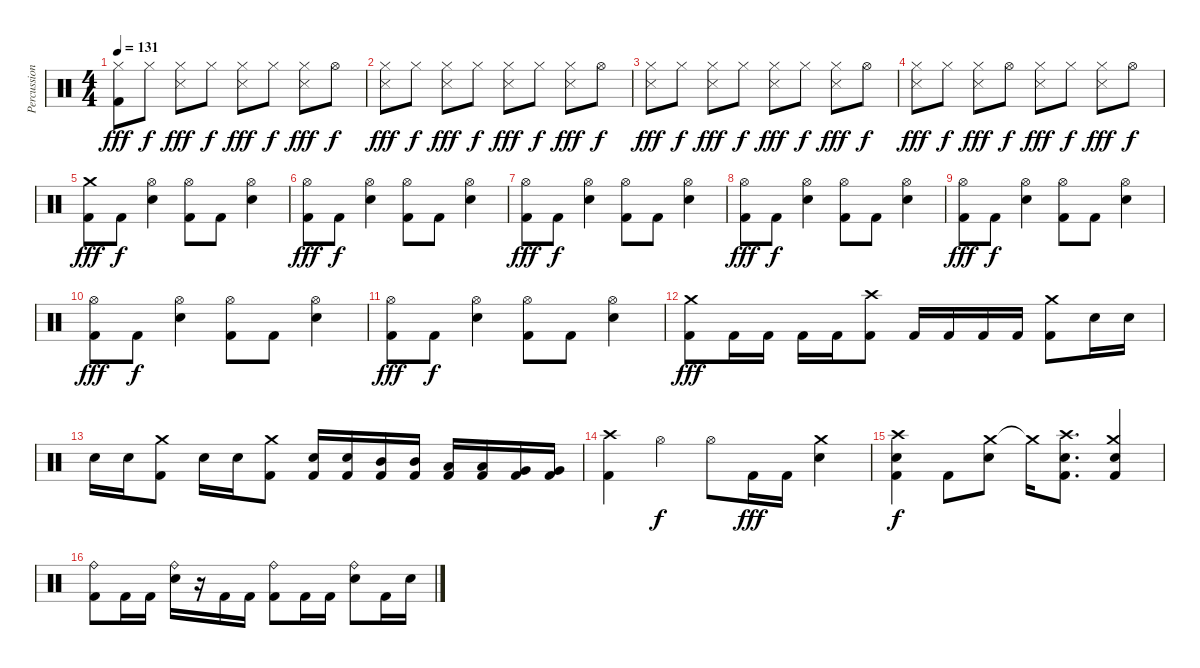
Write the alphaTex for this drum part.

\track ("Percussion" "Percussion") {instrument percussion}
\staff {score}
\articulation defaults
\ts (4 4)
\tempo 131
\clef neutral
\ks c
("Hi-Hat (closed)" "Kick (hit) 2").8{dy fff} "Hi-Hat (closed)".8{dy f} ("Hi-Hat (closed)" "Snare (side stick) 3").8{dy fff} "Hi-Hat (closed)".8{dy f} ("Hi-Hat (closed)" "Snare (side stick) 3").8{dy fff} "Hi-Hat (closed)".8{dy f} ("Hi-Hat (closed)" "Snare (side stick) 3").8{dy fff} "Hi-Hat (open)".8{dy f} |
("Hi-Hat (closed)" "Snare (side stick) 3").8{dy fff} "Hi-Hat (closed)".8{dy f} ("Hi-Hat (closed)" "Snare (side stick) 3").8{dy fff} "Hi-Hat (closed)".8{dy f} ("Hi-Hat (closed)" "Snare (side stick) 3").8{dy fff} "Hi-Hat (closed)".8{dy f} ("Hi-Hat (closed)" "Snare (side stick) 3").8{dy fff} "Hi-Hat (open)".8{dy f} |
("Hi-Hat (closed)" "Snare (side stick) 3").8{dy fff} "Hi-Hat (closed)".8{dy f} ("Hi-Hat (closed)" "Snare (side stick) 3").8{dy fff} "Hi-Hat (closed)".8{dy f} ("Hi-Hat (closed)" "Snare (side stick) 3").8{dy fff} "Hi-Hat (closed)".8{dy f} ("Hi-Hat (closed)" "Snare (side stick) 3").8{dy fff} "Hi-Hat (open)".8{dy f} |
("Hi-Hat (closed)" "Snare (side stick) 3").8{dy fff} "Hi-Hat (closed)".8{dy f} ("Hi-Hat (closed)" "Snare (side stick) 3").8{dy fff} "Hi-Hat (open)".8{dy f} ("Hi-Hat (closed)" "Snare (side stick) 3").8{dy fff} "Hi-Hat (closed)".8{dy f} ("Hi-Hat (closed)" "Snare (side stick) 3").8{dy fff} "Hi-Hat (open)".8{dy f} |
("Crash medium (hit)" "Kick (hit) 2").8{dy fff} "Kick (hit) 2".8{dy f} ("Hi-Hat (open)" "Electric Snare (hit)").4 ("Hi-Hat (open)" "Kick (hit) 2").8 "Kick (hit) 2".8 ("Hi-Hat (open)" "Electric Snare (hit)").4 |
("Hi-Hat (open)" "Kick (hit) 2").8{dy fff} "Kick (hit) 2".8{dy f} ("Hi-Hat (open)" "Electric Snare (hit)").4 ("Hi-Hat (open)" "Kick (hit) 2").8 "Kick (hit) 2".8 ("Hi-Hat (open)" "Electric Snare (hit)").4 |
("Hi-Hat (open)" "Kick (hit) 2").8{dy fff} "Kick (hit) 2".8{dy f} ("Hi-Hat (open)" "Electric Snare (hit)").4 ("Hi-Hat (open)" "Kick (hit) 2").8 "Kick (hit) 2".8 ("Hi-Hat (open)" "Electric Snare (hit)").4 |
("Hi-Hat (open)" "Kick (hit) 2").8{dy fff} "Kick (hit) 2".8{dy f} ("Hi-Hat (open)" "Electric Snare (hit)").4 ("Hi-Hat (open)" "Kick (hit) 2").8 "Kick (hit) 2".8 ("Hi-Hat (open)" "Electric Snare (hit)").4 |
("Hi-Hat (open)" "Kick (hit) 2").8{dy fff} "Kick (hit) 2".8{dy f} ("Hi-Hat (open)" "Electric Snare (hit)").4 ("Hi-Hat (open)" "Kick (hit) 2").8 "Kick (hit) 2".8 ("Hi-Hat (open)" "Electric Snare (hit)").4 |
("Hi-Hat (open)" "Kick (hit) 2").8{dy fff} "Kick (hit) 2".8{dy f} ("Hi-Hat (open)" "Electric Snare (hit)").4 ("Hi-Hat (open)" "Kick (hit) 2").8 "Kick (hit) 2".8 ("Hi-Hat (open)" "Electric Snare (hit)").4 |
("Hi-Hat (open)" "Kick (hit) 2").8{dy fff} "Kick (hit) 2".8{dy f} ("Hi-Hat (open)" "Electric Snare (hit)").4 ("Hi-Hat (open)" "Kick (hit) 2").8 "Kick (hit) 2".8 ("Hi-Hat (open)" "Electric Snare (hit)").4 |
("Crash medium (hit)" "Kick (hit) 2").8{dy fff} "Kick (hit) 2".16 "Kick (hit) 2".16 "Kick (hit) 2".16 "Kick (hit) 2".16 ("Crash high (hit)" "Kick (hit) 2").8 "Kick (hit) 2".16 "Kick (hit) 2".16 "Kick (hit) 2".16 "Kick (hit) 2".16 ("Crash medium (hit)" "Kick (hit) 2").8 "Electric Snare (hit)".16 "Electric Snare (hit)".16 |
"Electric Snare (hit)".16 "Electric Snare (hit)".16 ("Crash medium (hit)" "Kick (hit) 2").8 "Electric Snare (hit)".16 "Electric Snare (hit)".16 ("Crash medium (hit)" "Kick (hit) 2").8 ("Electric Snare (hit)" "Kick (hit) 2").16 ("Electric Snare (hit)" "Kick (hit) 2").16 ("Mid Tom (hit)" "Kick (hit) 2").16 ("Mid Tom (hit)" "Kick (hit) 2").16 ("Low Tom (hit)" "Kick (hit) 2").16 ("Low Tom (hit)" "Kick (hit) 2").16 ("Very Low Tom (hit)" "Kick (hit) 2").16 ("Very Low Tom (hit)" "Kick (hit) 2").16 |
("Crash high (hit)" "Kick (hit) 2").4 "Hi-Hat (open)".4{dy f} "Hi-Hat (open)".8 "Kick (hit) 2".16{dy fff} "Kick (hit) 2".16 ("Crash medium (hit)" "Electric Snare (hit)").4 |
("Crash high (hit)" "Electric Snare (hit)" "Kick (hit) 2").4{dy f} "Kick (hit) 2".8 ("Crash medium (hit)" "Electric Snare (hit)").8 "Crash medium (hit)"{t}.16 ("Crash high (hit)" "Electric Snare (hit)" "Kick (hit) 2").8{d} ("Crash medium (hit)" "Electric Snare (hit)" "Kick (hit) 2").4 |
("Ride (bell)" "Kick (hit) 2").8 "Kick (hit) 2".16 "Kick (hit) 2".16 ("Ride (bell)" "Electric Snare (hit)").16 r.16 "Kick (hit) 2".16 "Kick (hit) 2".16 ("Ride (bell)" "Kick (hit) 2").8 "Kick (hit) 2".16 "Kick (hit) 2".16 ("Ride (bell)" "Electric Snare (hit)").8 "Kick (hit) 2".16 "Electric Snare (hit)".16
